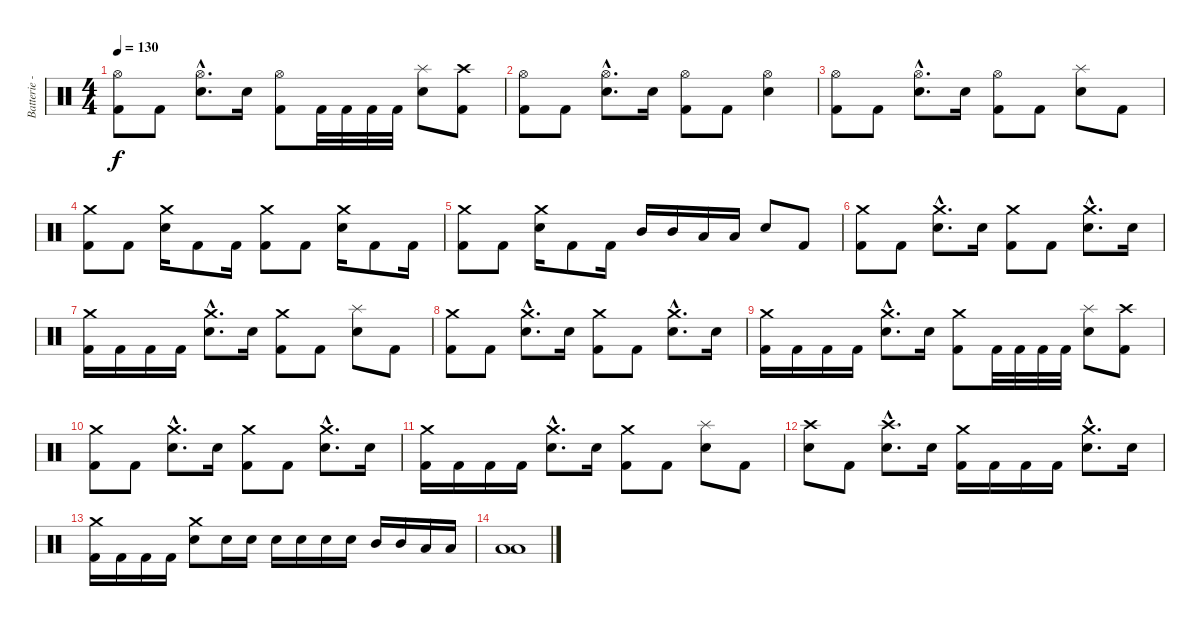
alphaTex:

\track ("Batterie - Anton" "Batterie -") {instrument percussion}
\staff {score}
\articulation defaults
\ts (4 4)
\tempo 130
\clef neutral
\ks c
("Hi-Hat (open)" "Kick (hit) 2").8{dy f} "Kick (hit) 2".8 ("Hi-Hat (open)"{hac} "Electric Snare (hit)"{hac}).8{d} "Electric Snare (hit)".16 ("Hi-Hat (open)" "Kick (hit) 2").8 "Kick (hit) 2".32 "Kick (hit) 2".32 "Kick (hit) 2".32 "Kick (hit) 2".32 ("Splash (hit)" "Electric Snare (hit)").8 ("Crash high (hit)" "Kick (hit) 2").8 |
("Hi-Hat (open)" "Kick (hit) 2").8 "Kick (hit) 2".8 ("Hi-Hat (open)"{hac} "Electric Snare (hit)"{hac}).8{d} "Electric Snare (hit)".16 ("Hi-Hat (open)" "Kick (hit) 2").8 "Kick (hit) 2".8 ("Hi-Hat (open)" "Electric Snare (hit)").4 |
("Hi-Hat (open)" "Kick (hit) 2").8 "Kick (hit) 2".8 ("Hi-Hat (open)"{hac} "Electric Snare (hit)"{hac}).8{d} "Electric Snare (hit)".16 ("Hi-Hat (open)" "Kick (hit) 2").8 "Kick (hit) 2".8 ("Splash (hit)" "Electric Snare (hit)").8 "Kick (hit) 2".8 |
("Crash medium (hit)" "Kick (hit) 2").8 "Kick (hit) 2".8 ("Crash medium (hit)" "Electric Snare (hit)").16 "Kick (hit) 2".8 "Kick (hit) 2".16 ("Crash medium (hit)" "Kick (hit) 2").8 "Kick (hit) 2".8 ("Crash medium (hit)" "Electric Snare (hit)").16 "Kick (hit) 2".8 "Kick (hit) 2".16 |
("Crash medium (hit)" "Kick (hit) 2").8 "Kick (hit) 2".8 ("Crash medium (hit)" "Electric Snare (hit)").16 "Kick (hit) 2".8 "Kick (hit) 2".16 "Mid Tom (hit)".16 "Mid Tom (hit)".16 "Low Tom (hit)".16 "Low Tom (hit)".16 "Electric Snare (hit)".8 "Kick (hit) 2".8 |
("Crash medium (hit)" "Kick (hit) 2").8 "Kick (hit) 2".8 ("Crash medium (hit)"{hac} "Electric Snare (hit)"{hac}).8{d} "Electric Snare (hit)".16 ("Crash medium (hit)" "Kick (hit) 2").8 "Kick (hit) 2".8 ("Crash medium (hit)"{hac} "Electric Snare (hit)"{hac}).8{d} "Electric Snare (hit)".16 |
("Crash medium (hit)" "Kick (hit) 2").16 "Kick (hit) 2".16 "Kick (hit) 2".16 "Kick (hit) 2".16 ("Crash medium (hit)"{hac} "Electric Snare (hit)"{hac}).8{d} "Electric Snare (hit)".16 ("Crash medium (hit)" "Kick (hit) 2").8 "Kick (hit) 2".8 ("Splash (hit)" "Electric Snare (hit)").8 "Kick (hit) 2".8 |
("Crash medium (hit)" "Kick (hit) 2").8 "Kick (hit) 2".8 ("Crash medium (hit)"{hac} "Electric Snare (hit)"{hac}).8{d} "Electric Snare (hit)".16 ("Crash medium (hit)" "Kick (hit) 2").8 "Kick (hit) 2".8 ("Crash medium (hit)"{hac} "Electric Snare (hit)"{hac}).8{d} "Electric Snare (hit)".16 |
("Crash medium (hit)" "Kick (hit) 2").16 "Kick (hit) 2".16 "Kick (hit) 2".16 "Kick (hit) 2".16 ("Crash medium (hit)"{hac} "Electric Snare (hit)"{hac}).8{d} "Electric Snare (hit)".16 ("Crash medium (hit)" "Kick (hit) 2").8 "Kick (hit) 2".32 "Kick (hit) 2".32 "Kick (hit) 2".32 "Kick (hit) 2".32 ("Splash (hit)" "Electric Snare (hit)").8 ("Crash high (hit)" "Kick (hit) 2").8 |
("Crash medium (hit)" "Kick (hit) 2").8 "Kick (hit) 2".8 ("Crash medium (hit)"{hac} "Electric Snare (hit)"{hac}).8{d} "Electric Snare (hit)".16 ("Crash medium (hit)" "Kick (hit) 2").8 "Kick (hit) 2".8 ("Crash medium (hit)"{hac} "Electric Snare (hit)"{hac}).8{d} "Electric Snare (hit)".16 |
("Crash medium (hit)" "Kick (hit) 2").16 "Kick (hit) 2".16 "Kick (hit) 2".16 "Kick (hit) 2".16 ("Crash medium (hit)"{hac} "Electric Snare (hit)"{hac}).8{d} "Electric Snare (hit)".16 ("Crash medium (hit)" "Kick (hit) 2").8 "Kick (hit) 2".8 ("Splash (hit)" "Electric Snare (hit)").8 "Kick (hit) 2".8 |
("Crash high (hit)" "Electric Snare (hit)").8 "Kick (hit) 2".8 ("Crash high (hit)"{hac} "Electric Snare (hit)"{hac}).8{d} "Electric Snare (hit)".16 ("Crash medium (hit)" "Kick (hit) 2").16 "Kick (hit) 2".16 "Kick (hit) 2".16 "Kick (hit) 2".16 ("Crash medium (hit)"{hac} "Electric Snare (hit)"{hac}).8{d} "Electric Snare (hit)".16 |
("Crash medium (hit)" "Kick (hit) 2").16 "Kick (hit) 2".16 "Kick (hit) 2".16 "Kick (hit) 2".16 ("Crash medium (hit)" "Electric Snare (hit)").8 "Electric Snare (hit)".16 "Electric Snare (hit)".16 "Electric Snare (hit)".16 "Electric Snare (hit)".16 "Electric Snare (hit)".16 "Electric Snare (hit)".16 "Mid Tom (hit)".16 "Mid Tom (hit)".16 "Low Tom (hit)".16 "Low Tom (hit)".16 |
("Low Floor Tom (hit)" "Low Floor Tom (hit)").1
